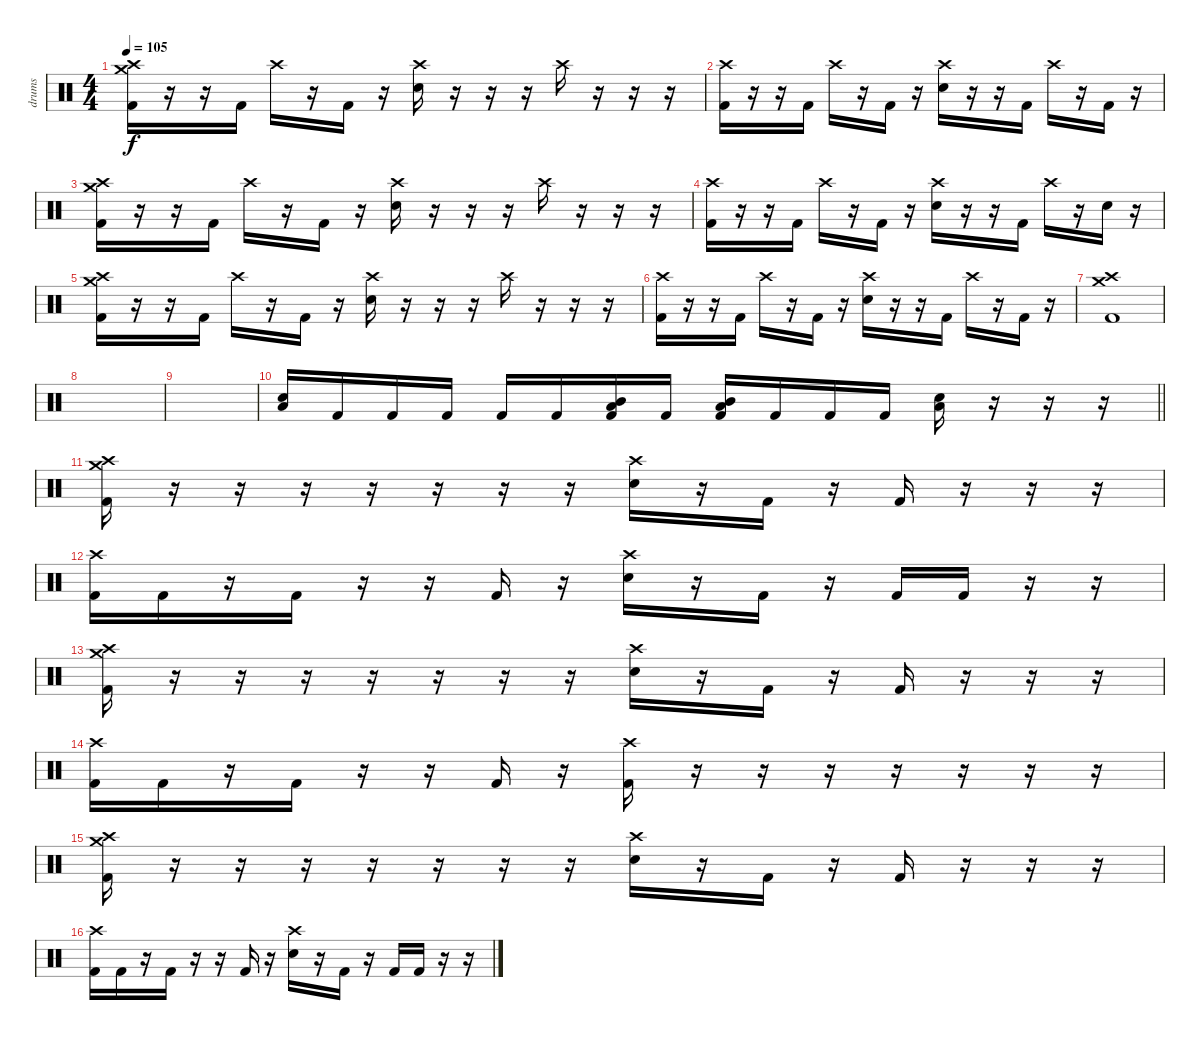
\track ("drums" "drums") {instrument percussion}
\staff {score}
\articulation defaults
\ts (4 4)
\section ("" "")
\tempo 105
\clef neutral
\ks c
("Crash medium (hit)" "Crash high (hit)" "Kick (hit) 2").16{dy f} r.16 r.16 "Kick (hit) 2".16 "Crash high (hit)".16 r.16 "Kick (hit) 2".16 r.16 ("Crash high (hit)" "Electric Snare (hit)").16 r.16 r.16 r.16 "Crash high (hit)".16 r.16 r.16 r.16 |
("Crash high (hit)" "Kick (hit) 2").16 r.16 r.16 "Kick (hit) 2".16 "Crash high (hit)".16 r.16 "Kick (hit) 2".16 r.16 ("Crash high (hit)" "Electric Snare (hit)").16 r.16 r.16 "Kick (hit) 2".16 "Crash high (hit)".16 r.16 "Kick (hit) 2".16 r.16 |
("Crash medium (hit)" "Crash high (hit)" "Kick (hit) 2").16 r.16 r.16 "Kick (hit) 2".16 "Crash high (hit)".16 r.16 "Kick (hit) 2".16 r.16 ("Crash high (hit)" "Electric Snare (hit)").16 r.16 r.16 r.16 "Crash high (hit)".16 r.16 r.16 r.16 |
("Crash high (hit)" "Kick (hit) 2").16 r.16 r.16 "Kick (hit) 2".16 "Crash high (hit)".16 r.16 "Kick (hit) 2".16 r.16 ("Crash high (hit)" "Electric Snare (hit)").16 r.16 r.16 "Kick (hit) 2".16 "Crash high (hit)".16 r.16 "Electric Snare (hit)".16 r.16 |
("Crash medium (hit)" "Crash high (hit)" "Kick (hit) 2").16 r.16 r.16 "Kick (hit) 2".16 "Crash high (hit)".16 r.16 "Kick (hit) 2".16 r.16 ("Crash high (hit)" "Electric Snare (hit)").16 r.16 r.16 r.16 "Crash high (hit)".16 r.16 r.16 r.16 |
("Crash high (hit)" "Kick (hit) 2").16 r.16 r.16 "Kick (hit) 2".16 "Crash high (hit)".16 r.16 "Kick (hit) 2".16 r.16 ("Crash high (hit)" "Electric Snare (hit)").16 r.16 r.16 "Kick (hit) 2".16 "Crash high (hit)".16 r.16 "Kick (hit) 2".16 r.16 |
("Crash medium (hit)" "Crash high (hit)" "Kick (hit) 2").1 |
|
|
\barLineRight lightlight
("Low Floor Tom (hit)" "Electric Snare (hit)").16 "Kick (hit) 2".16 "Kick (hit) 2".16 "Kick (hit) 2".16 "Kick (hit) 2".16 "Kick (hit) 2".16 ("Mid Tom (hit)" "Low Tom (hit)" "Kick (hit) 2").16 "Kick (hit) 2".16 ("Mid Tom (hit)" "Low Tom (hit)" "Kick (hit) 2").16 "Kick (hit) 2".16 "Kick (hit) 2".16 "Kick (hit) 2".16 ("Low Floor Tom (hit)" "Electric Snare (hit)").16 r.16 r.16 r.16 |
\section ("" "")
("Crash medium (hit)" "Crash high (hit)" "Kick (hit) 2").16 r.16 r.16 r.16 r.16 r.16 r.16 r.16 ("Crash high (hit)" "Electric Snare (hit)").16 r.16 "Kick (hit) 2".16 r.16 "Kick (hit) 2".16 r.16 r.16 r.16 |
("Crash high (hit)" "Kick (hit) 2").16 "Kick (hit) 2".16 r.16 "Kick (hit) 2".16 r.16 r.16 "Kick (hit) 2".16 r.16 ("Crash high (hit)" "Electric Snare (hit)").16 r.16 "Kick (hit) 2".16 r.16 "Kick (hit) 2".16 "Kick (hit) 2".16 r.16 r.16 |
("Crash medium (hit)" "Crash high (hit)" "Kick (hit) 2").16 r.16 r.16 r.16 r.16 r.16 r.16 r.16 ("Crash high (hit)" "Electric Snare (hit)").16 r.16 "Kick (hit) 2".16 r.16 "Kick (hit) 2".16 r.16 r.16 r.16 |
("Crash high (hit)" "Kick (hit) 2").16 "Kick (hit) 2".16 r.16 "Kick (hit) 2".16 r.16 r.16 "Kick (hit) 2".16 r.16 ("Crash high (hit)" "Kick (hit) 2").16 r.16 r.16 r.16 r.16 r.16 r.16 r.16 |
("Crash medium (hit)" "Crash high (hit)" "Kick (hit) 2").16 r.16 r.16 r.16 r.16 r.16 r.16 r.16 ("Crash high (hit)" "Electric Snare (hit)").16 r.16 "Kick (hit) 2".16 r.16 "Kick (hit) 2".16 r.16 r.16 r.16 |
("Crash high (hit)" "Kick (hit) 2").16 "Kick (hit) 2".16 r.16 "Kick (hit) 2".16 r.16 r.16 "Kick (hit) 2".16 r.16 ("Crash high (hit)" "Electric Snare (hit)").16 r.16 "Kick (hit) 2".16 r.16 "Kick (hit) 2".16 "Kick (hit) 2".16 r.16 r.16
